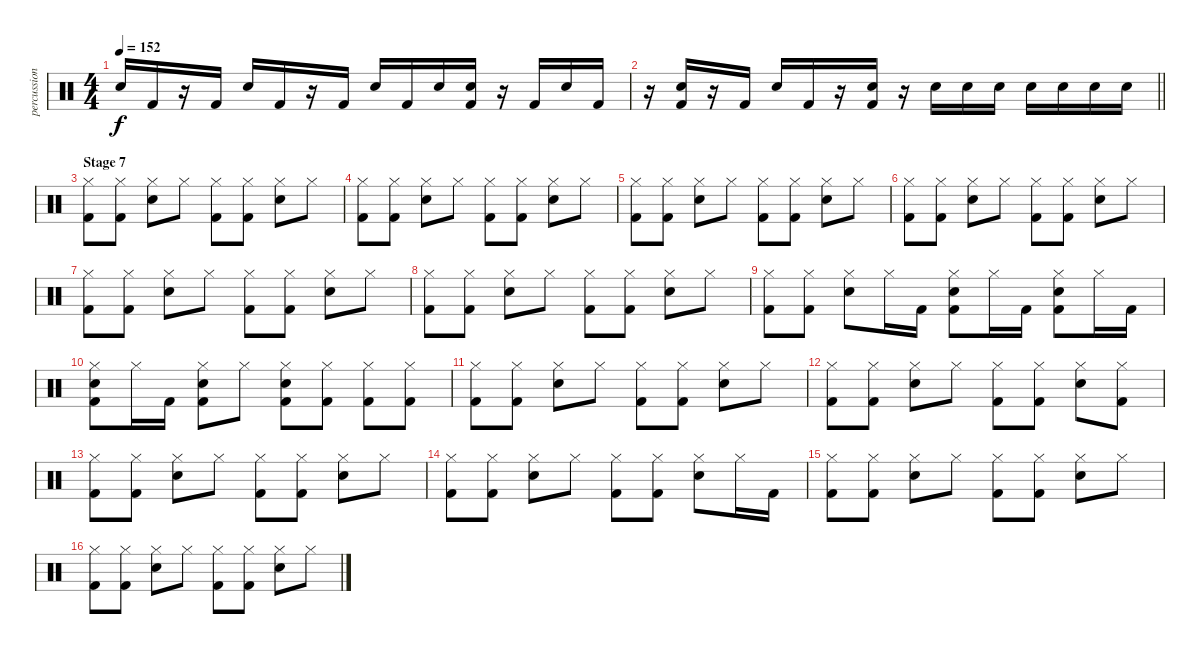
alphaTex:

\track ("percussion" "percussion") {instrument percussion}
\staff {score}
\articulation defaults
\ts (4 4)
\tempo 152
\clef neutral
\ks c "Electric Snare (hit)".16{dy f} "Kick (hit) 2".16
r.16 "Kick (hit) 2".16 "Electric Snare (hit)".16 "Kick (hit) 2".16 r.16 "Kick (hit) 2".16 "Electric Snare (hit)".16 "Kick (hit) 2".16 "Electric Snare (hit)".16 ("Electric Snare (hit)" "Kick (hit) 2").16 r.16 "Kick (hit) 2".16 "Electric Snare (hit)".16 "Kick (hit) 2".16 |
\barLineRight lightlight
r.16 ("Electric Snare (hit)" "Kick (hit) 2").16 r.16 "Kick (hit) 2".16 "Electric Snare (hit)".16 "Kick (hit) 2".16 r.16 ("Electric Snare (hit)" "Kick (hit) 2").16 r.16 "Electric Snare (hit)".16 "Electric Snare (hit)".16 "Electric Snare (hit)".16 "Electric Snare (hit)".16 "Electric Snare (hit)".16 "Electric Snare (hit)".16 "Electric Snare (hit)".16 |
\section ("" "Stage 7")
("Hi-Hat (closed)" "Kick (hit) 2").8 ("Hi-Hat (closed)" "Kick (hit) 2").8 ("Electric Snare (hit)" "Hi-Hat (closed)").8 "Hi-Hat (closed)".8 ("Hi-Hat (closed)" "Kick (hit) 2").8 ("Hi-Hat (closed)" "Kick (hit) 2").8 ("Electric Snare (hit)" "Hi-Hat (closed)").8 "Hi-Hat (closed)".8 |
("Hi-Hat (closed)" "Kick (hit) 2").8 ("Hi-Hat (closed)" "Kick (hit) 2").8 ("Electric Snare (hit)" "Hi-Hat (closed)").8 "Hi-Hat (closed)".8 ("Hi-Hat (closed)" "Kick (hit) 2").8 ("Hi-Hat (closed)" "Kick (hit) 2").8 ("Electric Snare (hit)" "Hi-Hat (closed)").8 "Hi-Hat (closed)".8 |
("Hi-Hat (closed)" "Kick (hit) 2").8 ("Hi-Hat (closed)" "Kick (hit) 2").8 ("Electric Snare (hit)" "Hi-Hat (closed)").8 "Hi-Hat (closed)".8 ("Hi-Hat (closed)" "Kick (hit) 2").8 ("Hi-Hat (closed)" "Kick (hit) 2").8 ("Electric Snare (hit)" "Hi-Hat (closed)").8 "Hi-Hat (closed)".8 |
("Hi-Hat (closed)" "Kick (hit) 2").8 ("Hi-Hat (closed)" "Kick (hit) 2").8 ("Electric Snare (hit)" "Hi-Hat (closed)").8 "Hi-Hat (closed)".8 ("Hi-Hat (closed)" "Kick (hit) 2").8 ("Hi-Hat (closed)" "Kick (hit) 2").8 ("Electric Snare (hit)" "Hi-Hat (closed)").8 "Hi-Hat (closed)".8 |
("Hi-Hat (closed)" "Kick (hit) 2").8 ("Hi-Hat (closed)" "Kick (hit) 2").8 ("Electric Snare (hit)" "Hi-Hat (closed)").8 "Hi-Hat (closed)".8 ("Hi-Hat (closed)" "Kick (hit) 2").8 ("Hi-Hat (closed)" "Kick (hit) 2").8 ("Electric Snare (hit)" "Hi-Hat (closed)").8 "Hi-Hat (closed)".8 |
("Hi-Hat (closed)" "Kick (hit) 2").8 ("Hi-Hat (closed)" "Kick (hit) 2").8 ("Electric Snare (hit)" "Hi-Hat (closed)").8 "Hi-Hat (closed)".8 ("Hi-Hat (closed)" "Kick (hit) 2").8 ("Hi-Hat (closed)" "Kick (hit) 2").8 ("Electric Snare (hit)" "Hi-Hat (closed)").8 "Hi-Hat (closed)".8 |
("Hi-Hat (closed)" "Kick (hit) 2").8 ("Hi-Hat (closed)" "Kick (hit) 2").8 ("Electric Snare (hit)" "Hi-Hat (closed)").8 "Hi-Hat (closed)".16 "Kick (hit) 2".16 ("Electric Snare (hit)" "Hi-Hat (closed)" "Kick (hit) 2").8 "Hi-Hat (closed)".16 "Kick (hit) 2".16 ("Electric Snare (hit)" "Hi-Hat (closed)" "Kick (hit) 2").8 "Hi-Hat (closed)".16 "Kick (hit) 2".16 |
("Electric Snare (hit)" "Hi-Hat (closed)" "Kick (hit) 2").8 "Hi-Hat (closed)".16 "Kick (hit) 2".16 ("Electric Snare (hit)" "Hi-Hat (closed)" "Kick (hit) 2").8 "Hi-Hat (closed)".8 ("Electric Snare (hit)" "Hi-Hat (closed)" "Kick (hit) 2").8 ("Hi-Hat (closed)" "Kick (hit) 2").8 ("Hi-Hat (closed)" "Kick (hit) 2").8 ("Hi-Hat (closed)" "Kick (hit) 2").8 |
("Hi-Hat (closed)" "Kick (hit) 2").8 ("Hi-Hat (closed)" "Kick (hit) 2").8 ("Electric Snare (hit)" "Hi-Hat (closed)").8 "Hi-Hat (closed)".8 ("Hi-Hat (closed)" "Kick (hit) 2").8 ("Hi-Hat (closed)" "Kick (hit) 2").8 ("Electric Snare (hit)" "Hi-Hat (closed)").8 "Hi-Hat (closed)".8 |
("Hi-Hat (closed)" "Kick (hit) 2").8 ("Hi-Hat (closed)" "Kick (hit) 2").8 ("Electric Snare (hit)" "Hi-Hat (closed)").8 "Hi-Hat (closed)".8 ("Hi-Hat (closed)" "Kick (hit) 2").8 ("Hi-Hat (closed)" "Kick (hit) 2").8 ("Electric Snare (hit)" "Hi-Hat (closed)").8 ("Hi-Hat (closed)" "Kick (hit) 2").8 |
("Hi-Hat (closed)" "Kick (hit) 2").8 ("Hi-Hat (closed)" "Kick (hit) 2").8 ("Electric Snare (hit)" "Hi-Hat (closed)").8 "Hi-Hat (closed)".8 ("Hi-Hat (closed)" "Kick (hit) 2").8 ("Hi-Hat (closed)" "Kick (hit) 2").8 ("Electric Snare (hit)" "Hi-Hat (closed)").8 "Hi-Hat (closed)".8 |
("Hi-Hat (closed)" "Kick (hit) 2").8 ("Hi-Hat (closed)" "Kick (hit) 2").8 ("Electric Snare (hit)" "Hi-Hat (closed)").8 "Hi-Hat (closed)".8 ("Hi-Hat (closed)" "Kick (hit) 2").8 ("Hi-Hat (closed)" "Kick (hit) 2").8 ("Electric Snare (hit)" "Hi-Hat (closed)").8 "Hi-Hat (closed)".16 "Kick (hit) 2".16 |
("Hi-Hat (closed)" "Kick (hit) 2").8 ("Hi-Hat (closed)" "Kick (hit) 2").8 ("Electric Snare (hit)" "Hi-Hat (closed)").8 "Hi-Hat (closed)".8 ("Hi-Hat (closed)" "Kick (hit) 2").8 ("Hi-Hat (closed)" "Kick (hit) 2").8 ("Electric Snare (hit)" "Hi-Hat (closed)").8 "Hi-Hat (closed)".8 |
("Hi-Hat (closed)" "Kick (hit) 2").8 ("Hi-Hat (closed)" "Kick (hit) 2").8 ("Electric Snare (hit)" "Hi-Hat (closed)").8 "Hi-Hat (closed)".8 ("Hi-Hat (closed)" "Kick (hit) 2").8 ("Hi-Hat (closed)" "Kick (hit) 2").8 ("Electric Snare (hit)" "Hi-Hat (closed)").8 "Hi-Hat (closed)".8
